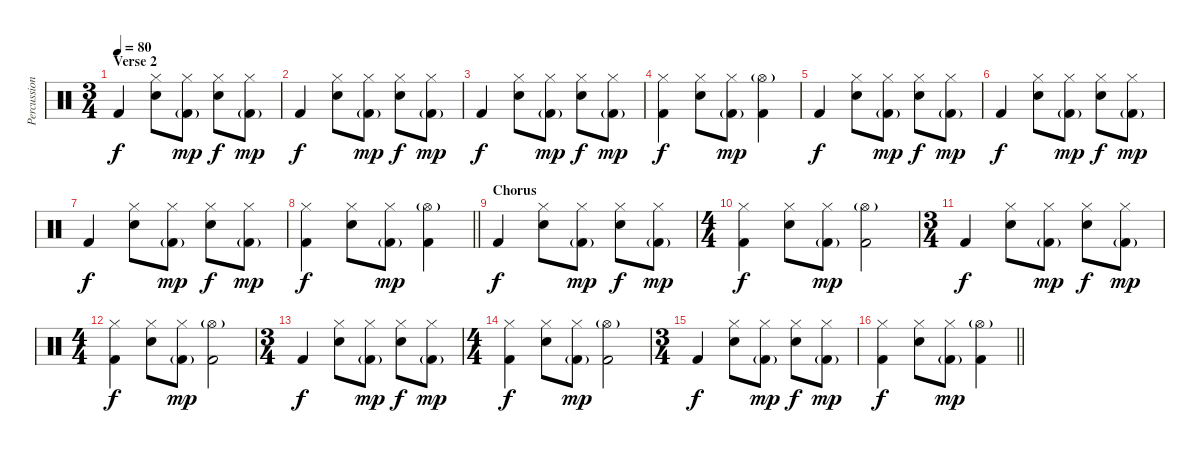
\track ("Percussion" "Percussion") {instrument percussion}
\staff {score}
\articulation defaults
\ts (3 4)
\section ("" "Verse 2")
\tempo 80
\clef neutral
\ks c "Kick (hit) 2".4{dy f}
("Hi-Hat (closed)" "Snare (hit) 2").8 ("Hi-Hat (closed)" "Kick (hit) 2"{g}).8{dy mp} ("Hi-Hat (closed)" "Snare (hit) 2").8{dy f} ("Hi-Hat (closed)" "Kick (hit) 2"{g}).8{dy mp} |
"Kick (hit) 2".4{dy f} ("Hi-Hat (closed)" "Snare (hit) 2").8 ("Hi-Hat (closed)" "Kick (hit) 2"{g}).8{dy mp} ("Hi-Hat (closed)" "Snare (hit) 2").8{dy f} ("Hi-Hat (closed)" "Kick (hit) 2"{g}).8{dy mp} |
"Kick (hit) 2".4{dy f} ("Hi-Hat (closed)" "Snare (hit) 2").8 ("Hi-Hat (closed)" "Kick (hit) 2"{g}).8{dy mp} ("Hi-Hat (closed)" "Snare (hit) 2").8{dy f} ("Hi-Hat (closed)" "Kick (hit) 2"{g}).8{dy mp} |
("Hi-Hat (closed)" "Kick (hit) 2").4{dy f} ("Hi-Hat (closed)" "Snare (hit) 2").8 ("Hi-Hat (closed)" "Kick (hit) 2"{g}).8{dy mp} ("Hi-Hat (open)"{g} "Kick (hit) 2").4 |
"Kick (hit) 2".4{dy f} ("Hi-Hat (closed)" "Snare (hit) 2").8 ("Hi-Hat (closed)" "Kick (hit) 2"{g}).8{dy mp} ("Hi-Hat (closed)" "Snare (hit) 2").8{dy f} ("Hi-Hat (closed)" "Kick (hit) 2"{g}).8{dy mp} |
"Kick (hit) 2".4{dy f} ("Hi-Hat (closed)" "Snare (hit) 2").8 ("Hi-Hat (closed)" "Kick (hit) 2"{g}).8{dy mp} ("Hi-Hat (closed)" "Snare (hit) 2").8{dy f} ("Hi-Hat (closed)" "Kick (hit) 2"{g}).8{dy mp} |
"Kick (hit) 2".4{dy f} ("Hi-Hat (closed)" "Snare (hit) 2").8 ("Hi-Hat (closed)" "Kick (hit) 2"{g}).8{dy mp} ("Hi-Hat (closed)" "Snare (hit) 2").8{dy f} ("Hi-Hat (closed)" "Kick (hit) 2"{g}).8{dy mp} |
\barLineRight lightlight
("Hi-Hat (closed)" "Kick (hit) 2").4{dy f} ("Hi-Hat (closed)" "Snare (hit) 2").8 ("Hi-Hat (closed)" "Kick (hit) 2"{g}).8{dy mp} ("Hi-Hat (open)"{g} "Kick (hit) 2").4 |
\section ("" "Chorus")
"Kick (hit) 2".4{dy f} ("Hi-Hat (closed)" "Snare (hit) 2").8 ("Hi-Hat (closed)" "Kick (hit) 2"{g}).8{dy mp} ("Hi-Hat (closed)" "Snare (hit) 2").8{dy f} ("Hi-Hat (closed)" "Kick (hit) 2"{g}).8{dy mp} |
\ts (4 4)
("Hi-Hat (closed)" "Kick (hit) 2").4{dy f} ("Hi-Hat (closed)" "Snare (hit) 2").8 ("Hi-Hat (closed)" "Kick (hit) 2"{g}).8{dy mp} ("Hi-Hat (open)"{g} "Kick (hit) 2").2 |
\ts (3 4)
"Kick (hit) 2".4{dy f} ("Hi-Hat (closed)" "Snare (hit) 2").8 ("Hi-Hat (closed)" "Kick (hit) 2"{g}).8{dy mp} ("Hi-Hat (closed)" "Snare (hit) 2").8{dy f} ("Hi-Hat (closed)" "Kick (hit) 2"{g}).8{dy mp} |
\ts (4 4)
("Hi-Hat (closed)" "Kick (hit) 2").4{dy f} ("Hi-Hat (closed)" "Snare (hit) 2").8 ("Hi-Hat (closed)" "Kick (hit) 2"{g}).8{dy mp} ("Hi-Hat (open)"{g} "Kick (hit) 2").2 |
\ts (3 4)
"Kick (hit) 2".4{dy f} ("Hi-Hat (closed)" "Snare (hit) 2").8 ("Hi-Hat (closed)" "Kick (hit) 2"{g}).8{dy mp} ("Hi-Hat (closed)" "Snare (hit) 2").8{dy f} ("Hi-Hat (closed)" "Kick (hit) 2"{g}).8{dy mp} |
\ts (4 4)
("Hi-Hat (closed)" "Kick (hit) 2").4{dy f} ("Hi-Hat (closed)" "Snare (hit) 2").8 ("Hi-Hat (closed)" "Kick (hit) 2"{g}).8{dy mp} ("Hi-Hat (open)"{g} "Kick (hit) 2").2 |
\ts (3 4)
"Kick (hit) 2".4{dy f} ("Hi-Hat (closed)" "Snare (hit) 2").8 ("Hi-Hat (closed)" "Kick (hit) 2"{g}).8{dy mp} ("Hi-Hat (closed)" "Snare (hit) 2").8{dy f} ("Hi-Hat (closed)" "Kick (hit) 2"{g}).8{dy mp} |
\barLineRight lightlight
("Hi-Hat (closed)" "Kick (hit) 2").4{dy f} ("Hi-Hat (closed)" "Snare (hit) 2").8 ("Hi-Hat (closed)" "Kick (hit) 2"{g}).8{dy mp} ("Hi-Hat (open)"{g} "Kick (hit) 2").4
